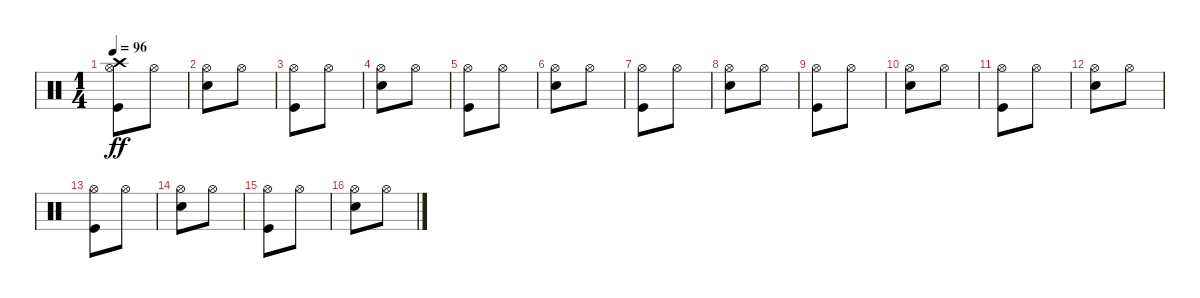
\track "" {instrument percussion}
\staff {score}
\articulation defaults
\ts (1 4)
\tempo 96
\clef neutral
\ks c
("Kick (hit)" "Hi-Hat (open)" "Crash high (hit)").8{dy ff} "Hi-Hat (open)".8 |
("Snare (hit) 2" "Hi-Hat (open)").8 "Hi-Hat (open)".8 |
("Kick (hit)" "Hi-Hat (open)").8 "Hi-Hat (open)".8 |
("Snare (hit) 2" "Hi-Hat (open)").8 "Hi-Hat (open)".8 |
("Kick (hit)" "Hi-Hat (open)").8 "Hi-Hat (open)".8 |
("Snare (hit) 2" "Hi-Hat (open)").8 "Hi-Hat (open)".8 |
("Kick (hit)" "Hi-Hat (open)").8 "Hi-Hat (open)".8 |
("Snare (hit) 2" "Hi-Hat (open)").8 "Hi-Hat (open)".8 |
("Kick (hit)" "Hi-Hat (open)").8 "Hi-Hat (open)".8 |
("Snare (hit) 2" "Hi-Hat (open)").8 "Hi-Hat (open)".8 |
("Kick (hit)" "Hi-Hat (open)").8 "Hi-Hat (open)".8 |
("Snare (hit) 2" "Hi-Hat (open)").8 "Hi-Hat (open)".8 |
("Kick (hit)" "Hi-Hat (open)").8 "Hi-Hat (open)".8 |
("Snare (hit) 2" "Hi-Hat (open)").8 "Hi-Hat (open)".8 |
("Kick (hit)" "Hi-Hat (open)").8 "Hi-Hat (open)".8 |
("Snare (hit) 2" "Hi-Hat (open)").8 "Hi-Hat (open)".8
